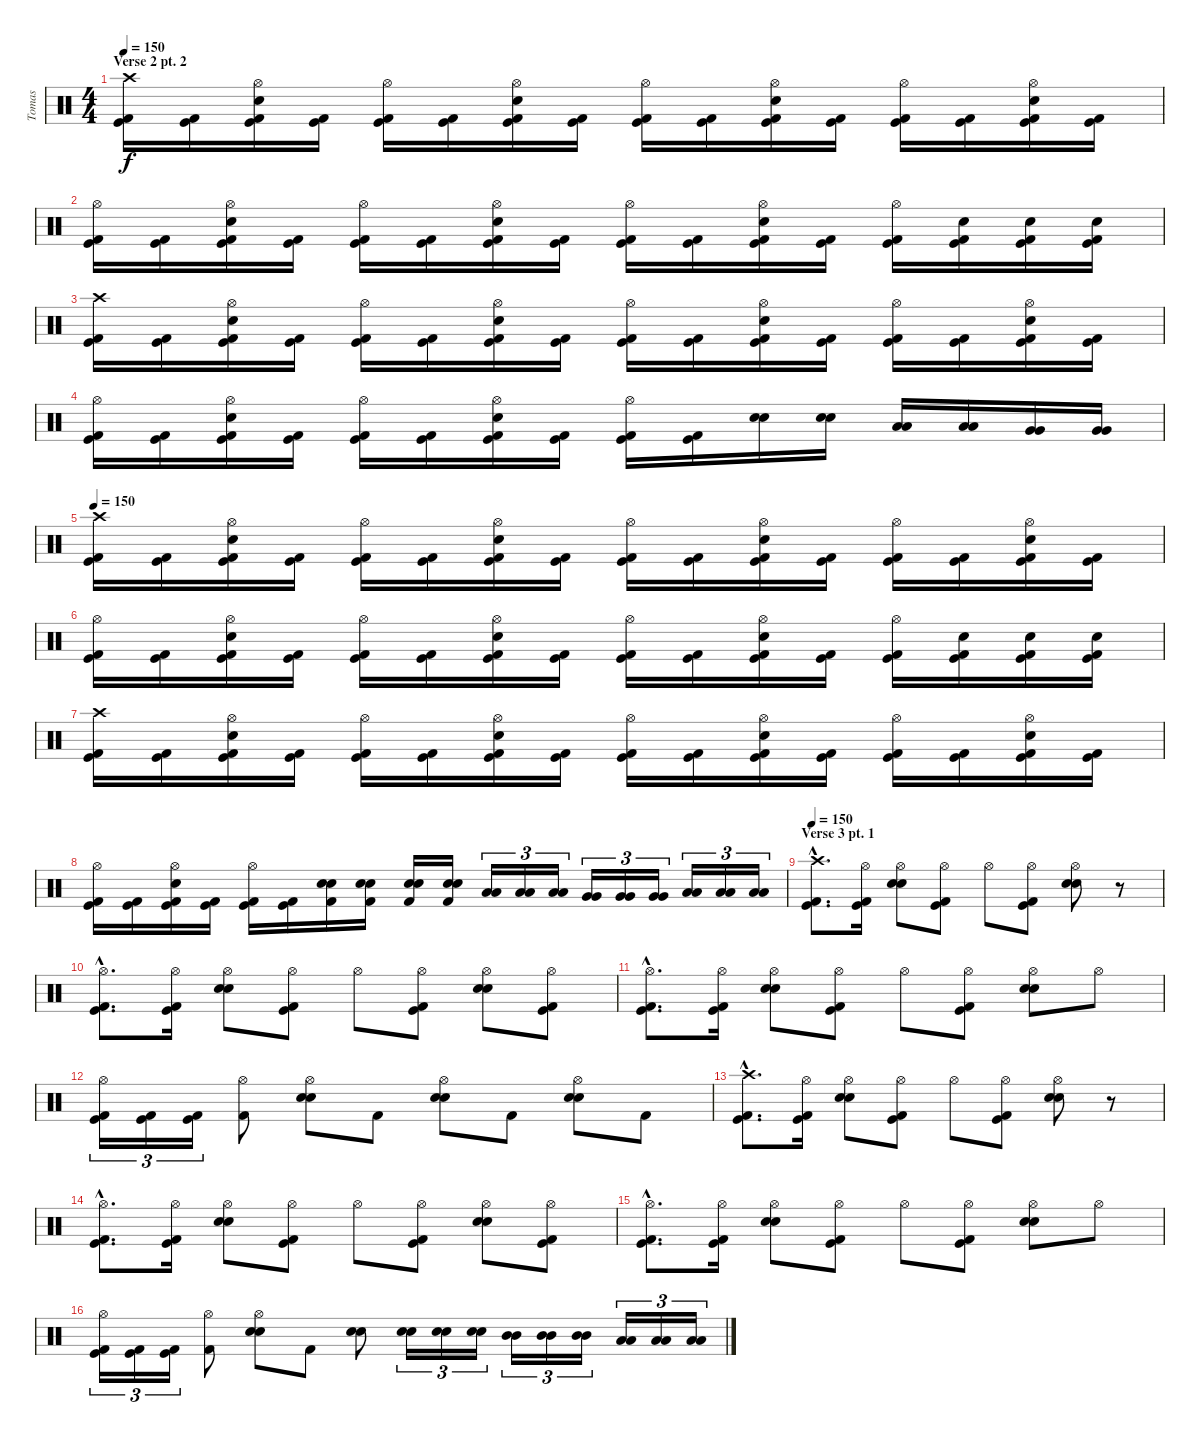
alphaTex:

\track ("Tomas" "Tomas") {instrument percussion}
\staff {score}
\articulation defaults
\ts (4 4)
\section ("" "Verse 2 pt. 2")
\tempo 150
\clef neutral
\ks c
("Crash high (hit)" "Kick (hit)" "Kick (hit) 2").16{dy f} ("Kick (hit)" "Kick (hit) 2").16 ("Hi-Hat (open)" "Electric Snare (hit)" "Kick (hit)" "Kick (hit) 2").16 ("Kick (hit)" "Kick (hit) 2").16 ("Hi-Hat (open)" "Kick (hit)" "Kick (hit) 2").16 ("Kick (hit)" "Kick (hit) 2").16 ("Hi-Hat (open)" "Electric Snare (hit)" "Kick (hit)" "Kick (hit) 2").16 ("Kick (hit)" "Kick (hit) 2").16 ("Hi-Hat (open)" "Kick (hit)" "Kick (hit) 2").16 ("Kick (hit)" "Kick (hit) 2").16 ("Hi-Hat (open)" "Electric Snare (hit)" "Kick (hit)" "Kick (hit) 2").16 ("Kick (hit)" "Kick (hit) 2").16 ("Hi-Hat (open)" "Kick (hit)" "Kick (hit) 2").16 ("Kick (hit)" "Kick (hit) 2").16 ("Hi-Hat (open)" "Electric Snare (hit)" "Kick (hit)" "Kick (hit) 2").16 ("Kick (hit)" "Kick (hit) 2").16 |
("Hi-Hat (open)" "Kick (hit)" "Kick (hit) 2").16 ("Kick (hit)" "Kick (hit) 2").16 ("Hi-Hat (open)" "Electric Snare (hit)" "Kick (hit)" "Kick (hit) 2").16 ("Kick (hit)" "Kick (hit) 2").16 ("Hi-Hat (open)" "Kick (hit)" "Kick (hit) 2").16 ("Kick (hit)" "Kick (hit) 2").16 ("Hi-Hat (open)" "Electric Snare (hit)" "Kick (hit)" "Kick (hit) 2").16 ("Kick (hit)" "Kick (hit) 2").16 ("Hi-Hat (open)" "Kick (hit)" "Kick (hit) 2").16 ("Kick (hit)" "Kick (hit) 2").16 ("Hi-Hat (open)" "Electric Snare (hit)" "Kick (hit)" "Kick (hit) 2").16 ("Kick (hit)" "Kick (hit) 2").16 ("Hi-Hat (open)" "Kick (hit)" "Kick (hit) 2").16 ("Electric Snare (hit)" "Kick (hit)" "Kick (hit) 2").16 ("Electric Snare (hit)" "Kick (hit)" "Kick (hit) 2").16 ("Electric Snare (hit)" "Kick (hit)" "Kick (hit) 2").16 |
("Crash high (hit)" "Kick (hit)" "Kick (hit) 2").16 ("Kick (hit)" "Kick (hit) 2").16 ("Hi-Hat (open)" "Electric Snare (hit)" "Kick (hit)" "Kick (hit) 2").16 ("Kick (hit)" "Kick (hit) 2").16 ("Hi-Hat (open)" "Kick (hit)" "Kick (hit) 2").16 ("Kick (hit)" "Kick (hit) 2").16 ("Hi-Hat (open)" "Electric Snare (hit)" "Kick (hit)" "Kick (hit) 2").16 ("Kick (hit)" "Kick (hit) 2").16 ("Hi-Hat (open)" "Kick (hit)" "Kick (hit) 2").16 ("Kick (hit)" "Kick (hit) 2").16 ("Hi-Hat (open)" "Electric Snare (hit)" "Kick (hit)" "Kick (hit) 2").16 ("Kick (hit)" "Kick (hit) 2").16 ("Hi-Hat (open)" "Kick (hit)" "Kick (hit) 2").16 ("Kick (hit)" "Kick (hit) 2").16 ("Hi-Hat (open)" "Electric Snare (hit)" "Kick (hit)" "Kick (hit) 2").16 ("Kick (hit)" "Kick (hit) 2").16 |
("Hi-Hat (open)" "Kick (hit)" "Kick (hit) 2").16 ("Kick (hit)" "Kick (hit) 2").16 ("Hi-Hat (open)" "Electric Snare (hit)" "Kick (hit)" "Kick (hit) 2").16 ("Kick (hit)" "Kick (hit) 2").16 ("Hi-Hat (open)" "Kick (hit)" "Kick (hit) 2").16 ("Kick (hit)" "Kick (hit) 2").16 ("Hi-Hat (open)" "Electric Snare (hit)" "Kick (hit)" "Kick (hit) 2").16 ("Kick (hit)" "Kick (hit) 2").16 ("Hi-Hat (open)" "Kick (hit)" "Kick (hit) 2").16 ("Kick (hit)" "Kick (hit) 2").16 ("Electric Snare (hit)" "Electric Snare (hit)").16 ("Electric Snare (hit)" "Electric Snare (hit)").16 ("Low Tom (hit)" "Low Tom (hit)").16 ("Low Tom (hit)" "Low Tom (hit)").16 ("Very Low Tom (hit)" "Very Low Tom (hit)").16 ("Very Low Tom (hit)" "Very Low Tom (hit)").16 |
\tempo 150
("Crash high (hit)" "Kick (hit)" "Kick (hit) 2").16 ("Kick (hit)" "Kick (hit) 2").16 ("Hi-Hat (open)" "Electric Snare (hit)" "Kick (hit)" "Kick (hit) 2").16 ("Kick (hit)" "Kick (hit) 2").16 ("Hi-Hat (open)" "Kick (hit)" "Kick (hit) 2").16 ("Kick (hit)" "Kick (hit) 2").16 ("Hi-Hat (open)" "Electric Snare (hit)" "Kick (hit)" "Kick (hit) 2").16 ("Kick (hit)" "Kick (hit) 2").16 ("Hi-Hat (open)" "Kick (hit)" "Kick (hit) 2").16 ("Kick (hit)" "Kick (hit) 2").16 ("Hi-Hat (open)" "Electric Snare (hit)" "Kick (hit)" "Kick (hit) 2").16 ("Kick (hit)" "Kick (hit) 2").16 ("Hi-Hat (open)" "Kick (hit)" "Kick (hit) 2").16 ("Kick (hit)" "Kick (hit) 2").16 ("Hi-Hat (open)" "Electric Snare (hit)" "Kick (hit)" "Kick (hit) 2").16 ("Kick (hit)" "Kick (hit) 2").16 |
("Hi-Hat (open)" "Kick (hit)" "Kick (hit) 2").16 ("Kick (hit)" "Kick (hit) 2").16 ("Hi-Hat (open)" "Electric Snare (hit)" "Kick (hit)" "Kick (hit) 2").16 ("Kick (hit)" "Kick (hit) 2").16 ("Hi-Hat (open)" "Kick (hit)" "Kick (hit) 2").16 ("Kick (hit)" "Kick (hit) 2").16 ("Hi-Hat (open)" "Electric Snare (hit)" "Kick (hit)" "Kick (hit) 2").16 ("Kick (hit)" "Kick (hit) 2").16 ("Hi-Hat (open)" "Kick (hit)" "Kick (hit) 2").16 ("Kick (hit)" "Kick (hit) 2").16 ("Hi-Hat (open)" "Electric Snare (hit)" "Kick (hit)" "Kick (hit) 2").16 ("Kick (hit)" "Kick (hit) 2").16 ("Hi-Hat (open)" "Kick (hit)" "Kick (hit) 2").16 ("Electric Snare (hit)" "Kick (hit)" "Kick (hit) 2").16 ("Electric Snare (hit)" "Kick (hit)" "Kick (hit) 2").16 ("Electric Snare (hit)" "Kick (hit)" "Kick (hit) 2").16 |
("Crash high (hit)" "Kick (hit)" "Kick (hit) 2").16 ("Kick (hit)" "Kick (hit) 2").16 ("Hi-Hat (open)" "Electric Snare (hit)" "Kick (hit)" "Kick (hit) 2").16 ("Kick (hit)" "Kick (hit) 2").16 ("Hi-Hat (open)" "Kick (hit)" "Kick (hit) 2").16 ("Kick (hit)" "Kick (hit) 2").16 ("Hi-Hat (open)" "Electric Snare (hit)" "Kick (hit)" "Kick (hit) 2").16 ("Kick (hit)" "Kick (hit) 2").16 ("Hi-Hat (open)" "Kick (hit)" "Kick (hit) 2").16 ("Kick (hit)" "Kick (hit) 2").16 ("Hi-Hat (open)" "Electric Snare (hit)" "Kick (hit)" "Kick (hit) 2").16 ("Kick (hit)" "Kick (hit) 2").16 ("Hi-Hat (open)" "Kick (hit)" "Kick (hit) 2").16 ("Kick (hit)" "Kick (hit) 2").16 ("Hi-Hat (open)" "Electric Snare (hit)" "Kick (hit)" "Kick (hit) 2").16 ("Kick (hit)" "Kick (hit) 2").16 |
("Hi-Hat (open)" "Kick (hit)" "Kick (hit) 2").16 ("Kick (hit)" "Kick (hit) 2").16 ("Hi-Hat (open)" "Electric Snare (hit)" "Kick (hit)" "Kick (hit) 2").16 ("Kick (hit)" "Kick (hit) 2").16 ("Hi-Hat (open)" "Kick (hit)" "Kick (hit) 2").16 ("Kick (hit)" "Kick (hit) 2").16 ("Electric Snare (hit)" "Electric Snare (hit)" "Kick (hit) 2").16 ("Electric Snare (hit)" "Electric Snare (hit)" "Kick (hit) 2").16 ("Electric Snare (hit)" "Electric Snare (hit)" "Kick (hit) 2").16 ("Electric Snare (hit)" "Electric Snare (hit)" "Kick (hit) 2").16 ("Low Tom (hit)" "Low Tom (hit)").16{tu (3 2)} ("Low Tom (hit)" "Low Tom (hit)").16{tu (3 2)} ("Low Tom (hit)" "Low Tom (hit)").16{tu (3 2)} ("Very Low Tom (hit)" "Very Low Tom (hit)").16{tu (3 2)} ("Very Low Tom (hit)" "Very Low Tom (hit)").16{tu (3 2)} ("Very Low Tom (hit)" "Very Low Tom (hit)").16{tu (3 2)} ("Low Floor Tom (hit)" "Low Floor Tom (hit)").16{tu (3 2)} ("Low Floor Tom (hit)" "Low Floor Tom (hit)").16{tu (3 2)} ("Low Floor Tom (hit)" "Low Floor Tom (hit)").16{tu (3 2)} |
\section ("" "Verse 3 pt. 1")
\tempo 150
("Crash high (hit)"{hac} "Kick (hit)"{hac} "Kick (hit) 2"{hac}).8{d} ("Hi-Hat (open)" "Kick (hit)" "Kick (hit) 2").16 ("Hi-Hat (open)" "Electric Snare (hit)" "Electric Snare (hit)").8 ("Hi-Hat (open)" "Kick (hit)" "Kick (hit) 2").8 "Hi-Hat (open)".8 ("Hi-Hat (open)" "Kick (hit)" "Kick (hit) 2").8 ("Hi-Hat (open)" "Electric Snare (hit)" "Electric Snare (hit)").8 r.8 |
("Hi-Hat (open)"{hac} "Kick (hit)"{hac} "Kick (hit) 2"{hac}).8{d} ("Hi-Hat (open)" "Kick (hit)" "Kick (hit) 2").16 ("Hi-Hat (open)" "Electric Snare (hit)" "Electric Snare (hit)").8 ("Hi-Hat (open)" "Kick (hit)" "Kick (hit) 2").8 "Hi-Hat (open)".8 ("Hi-Hat (open)" "Kick (hit)" "Kick (hit) 2").8 ("Hi-Hat (open)" "Electric Snare (hit)" "Electric Snare (hit)").8 ("Hi-Hat (open)" "Kick (hit)" "Kick (hit) 2").8 |
("Hi-Hat (open)"{hac} "Kick (hit)"{hac} "Kick (hit) 2"{hac}).8{d} ("Hi-Hat (open)" "Kick (hit)" "Kick (hit) 2").16 ("Hi-Hat (open)" "Electric Snare (hit)" "Electric Snare (hit)").8 ("Hi-Hat (open)" "Kick (hit)" "Kick (hit) 2").8 "Hi-Hat (open)".8 ("Hi-Hat (open)" "Kick (hit)" "Kick (hit) 2").8 ("Hi-Hat (open)" "Electric Snare (hit)" "Electric Snare (hit)").8 "Hi-Hat (open)".8 |
("Hi-Hat (open)" "Kick (hit)" "Kick (hit) 2").16{tu (3 2)} ("Kick (hit)" "Kick (hit) 2").16{tu (3 2)} ("Kick (hit)" "Kick (hit) 2").16{tu (3 2)} ("Hi-Hat (open)" "Kick (hit) 2").8 ("Hi-Hat (open)" "Electric Snare (hit)" "Electric Snare (hit)").8 "Kick (hit) 2".8 ("Hi-Hat (open)" "Electric Snare (hit)" "Electric Snare (hit)").8 "Kick (hit) 2".8 ("Hi-Hat (open)" "Electric Snare (hit)" "Electric Snare (hit)").8 "Kick (hit) 2".8 |
("Crash high (hit)"{hac} "Kick (hit)"{hac} "Kick (hit) 2"{hac}).8{d} ("Hi-Hat (open)" "Kick (hit)" "Kick (hit) 2").16 ("Hi-Hat (open)" "Electric Snare (hit)" "Electric Snare (hit)").8 ("Hi-Hat (open)" "Kick (hit)" "Kick (hit) 2").8 "Hi-Hat (open)".8 ("Hi-Hat (open)" "Kick (hit)" "Kick (hit) 2").8 ("Hi-Hat (open)" "Electric Snare (hit)" "Electric Snare (hit)").8 r.8 |
("Hi-Hat (open)"{hac} "Kick (hit)"{hac} "Kick (hit) 2"{hac}).8{d} ("Hi-Hat (open)" "Kick (hit)" "Kick (hit) 2").16 ("Hi-Hat (open)" "Electric Snare (hit)" "Electric Snare (hit)").8 ("Hi-Hat (open)" "Kick (hit)" "Kick (hit) 2").8 "Hi-Hat (open)".8 ("Hi-Hat (open)" "Kick (hit)" "Kick (hit) 2").8 ("Hi-Hat (open)" "Electric Snare (hit)" "Electric Snare (hit)").8 ("Hi-Hat (open)" "Kick (hit)" "Kick (hit) 2").8 |
("Hi-Hat (open)"{hac} "Kick (hit)"{hac} "Kick (hit) 2"{hac}).8{d} ("Hi-Hat (open)" "Kick (hit)" "Kick (hit) 2").16 ("Hi-Hat (open)" "Electric Snare (hit)" "Electric Snare (hit)").8 ("Hi-Hat (open)" "Kick (hit)" "Kick (hit) 2").8 "Hi-Hat (open)".8 ("Hi-Hat (open)" "Kick (hit)" "Kick (hit) 2").8 ("Hi-Hat (open)" "Electric Snare (hit)" "Electric Snare (hit)").8 "Hi-Hat (open)".8 |
("Hi-Hat (open)" "Kick (hit)" "Kick (hit) 2").16{tu (3 2)} ("Kick (hit)" "Kick (hit) 2").16{tu (3 2)} ("Kick (hit)" "Kick (hit) 2").16{tu (3 2)} ("Hi-Hat (open)" "Kick (hit) 2").8 ("Hi-Hat (open)" "Electric Snare (hit)" "Electric Snare (hit)").8 "Kick (hit) 2".8 ("Electric Snare (hit)" "Electric Snare (hit)").8 ("Electric Snare (hit)" "Electric Snare (hit)").16{tu (3 2)} ("Electric Snare (hit)" "Electric Snare (hit)").16{tu (3 2)} ("Electric Snare (hit)" "Electric Snare (hit)").16{tu (3 2)} ("Mid Tom (hit)" "Mid Tom (hit)").16{tu (3 2)} ("Mid Tom (hit)" "Mid Tom (hit)").16{tu (3 2)} ("Mid Tom (hit)" "Mid Tom (hit)").16{tu (3 2)} ("Low Tom (hit)" "Low Tom (hit)").16{tu (3 2)} ("Low Tom (hit)" "Low Tom (hit)").16{tu (3 2)} ("Low Tom (hit)" "Low Tom (hit)").16{tu (3 2)}
